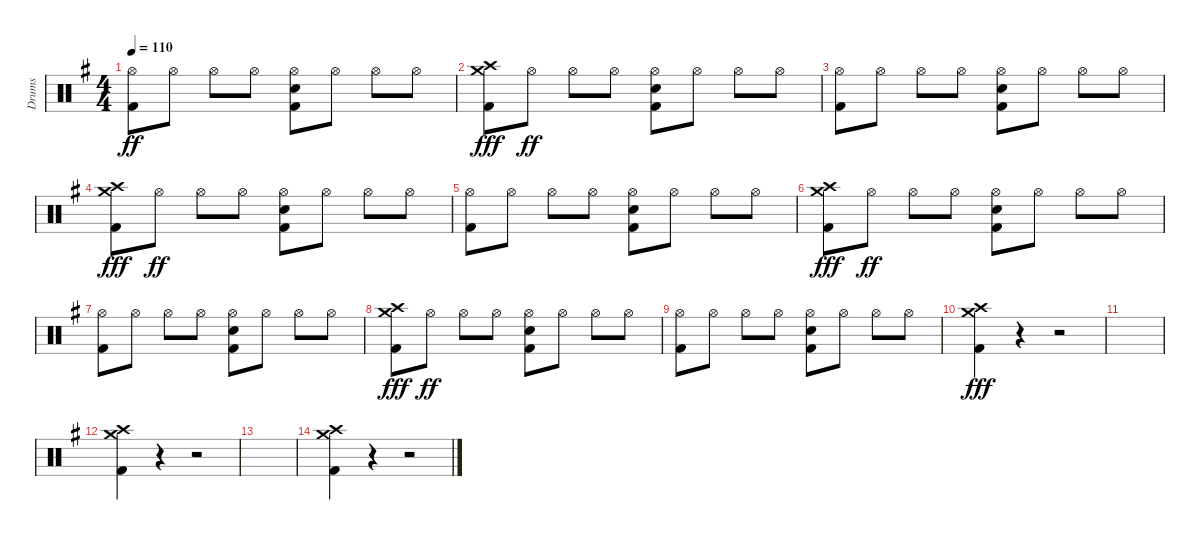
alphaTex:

\track ("Drums" "Drums") {instrument percussion}
\staff {score}
\articulation defaults
\ts (4 4)
\tempo 110
\clef neutral
\ks eminor
("Kick (hit) 2" "Hi-Hat (open)").8{dy ff} "Hi-Hat (open)".8 "Hi-Hat (open)".8 "Hi-Hat (open)".8 ("Kick (hit) 2" "Electric Snare (hit)" "Hi-Hat (open)").8 "Hi-Hat (open)".8 "Hi-Hat (open)".8 "Hi-Hat (open)".8 |
("Kick (hit) 2" "Crash high (hit)" "Crash medium (hit)").8{dy fff} "Hi-Hat (open)".8{dy ff} "Hi-Hat (open)".8 "Hi-Hat (open)".8 ("Kick (hit) 2" "Electric Snare (hit)" "Hi-Hat (open)").8 "Hi-Hat (open)".8 "Hi-Hat (open)".8 "Hi-Hat (open)".8 |
("Kick (hit) 2" "Hi-Hat (open)").8 "Hi-Hat (open)".8 "Hi-Hat (open)".8 "Hi-Hat (open)".8 ("Kick (hit) 2" "Electric Snare (hit)" "Hi-Hat (open)").8 "Hi-Hat (open)".8 "Hi-Hat (open)".8 "Hi-Hat (open)".8 |
("Kick (hit) 2" "Crash high (hit)" "Crash medium (hit)").8{dy fff} "Hi-Hat (open)".8{dy ff} "Hi-Hat (open)".8 "Hi-Hat (open)".8 ("Kick (hit) 2" "Electric Snare (hit)" "Hi-Hat (open)").8 "Hi-Hat (open)".8 "Hi-Hat (open)".8 "Hi-Hat (open)".8 |
("Kick (hit) 2" "Hi-Hat (open)").8 "Hi-Hat (open)".8 "Hi-Hat (open)".8 "Hi-Hat (open)".8 ("Kick (hit) 2" "Electric Snare (hit)" "Hi-Hat (open)").8 "Hi-Hat (open)".8 "Hi-Hat (open)".8 "Hi-Hat (open)".8 |
("Kick (hit) 2" "Crash high (hit)" "Crash medium (hit)").8{dy fff} "Hi-Hat (open)".8{dy ff} "Hi-Hat (open)".8 "Hi-Hat (open)".8 ("Kick (hit) 2" "Electric Snare (hit)" "Hi-Hat (open)").8 "Hi-Hat (open)".8 "Hi-Hat (open)".8 "Hi-Hat (open)".8 |
("Kick (hit) 2" "Hi-Hat (open)").8 "Hi-Hat (open)".8 "Hi-Hat (open)".8 "Hi-Hat (open)".8 ("Kick (hit) 2" "Electric Snare (hit)" "Hi-Hat (open)").8 "Hi-Hat (open)".8 "Hi-Hat (open)".8 "Hi-Hat (open)".8 |
("Kick (hit) 2" "Crash high (hit)" "Crash medium (hit)").8{dy fff} "Hi-Hat (open)".8{dy ff} "Hi-Hat (open)".8 "Hi-Hat (open)".8 ("Kick (hit) 2" "Electric Snare (hit)" "Hi-Hat (open)").8 "Hi-Hat (open)".8 "Hi-Hat (open)".8 "Hi-Hat (open)".8 |
("Kick (hit) 2" "Hi-Hat (open)").8 "Hi-Hat (open)".8 "Hi-Hat (open)".8 "Hi-Hat (open)".8 ("Kick (hit) 2" "Electric Snare (hit)" "Hi-Hat (open)").8 "Hi-Hat (open)".8 "Hi-Hat (open)".8 "Hi-Hat (open)".8 |
("Crash high (hit)" "Kick (hit) 2" "Crash medium (hit)").4{dy fff} r.4 r.2 |
|
("Crash high (hit)" "Kick (hit) 2" "Crash medium (hit)").4 r.4 r.2 |
|
("Crash high (hit)" "Kick (hit) 2" "Crash medium (hit)").4 r.4 r.2
